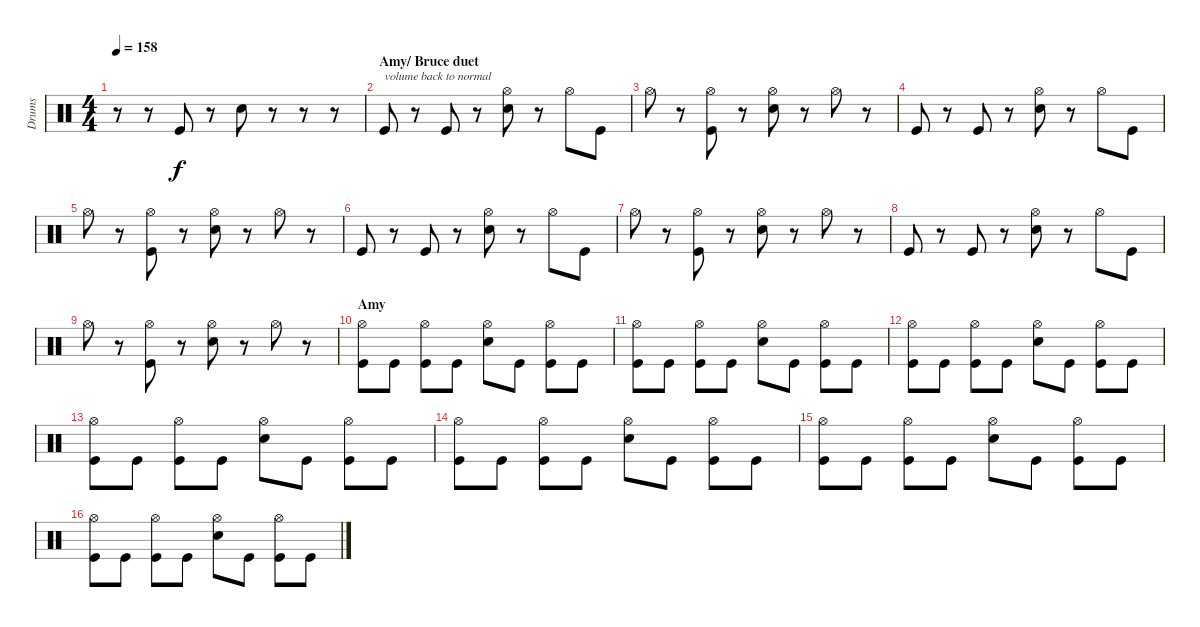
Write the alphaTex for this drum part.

\track ("Drums" "Drums") {instrument percussion}
\staff {score}
\articulation defaults
\ts (4 4)
\tempo 158
\clef neutral
\ks c
r.8{dy f} r.8 "Kick (hit)".8 r.8 "Snare (hit) 2".8 r.8 r.8 r.8 |
\section ("" "Amy/ Bruce duet")
"Kick (hit)".8{txt "volume back to normal" volume 13} r.8 "Kick (hit)".8 r.8 ("Hi-Hat (open)" "Snare (hit) 2").8 r.8 "Hi-Hat (open)".8 "Kick (hit)".8 |
"Hi-Hat (open)".8 r.8 ("Hi-Hat (open)" "Kick (hit)").8 r.8 ("Hi-Hat (open)" "Snare (hit) 2").8 r.8 "Hi-Hat (open)".8 r.8 |
"Kick (hit)".8 r.8 "Kick (hit)".8 r.8 ("Hi-Hat (open)" "Snare (hit) 2").8 r.8 "Hi-Hat (open)".8 "Kick (hit)".8 |
"Hi-Hat (open)".8 r.8 ("Hi-Hat (open)" "Kick (hit)").8 r.8 ("Hi-Hat (open)" "Snare (hit) 2").8 r.8 "Hi-Hat (open)".8 r.8 |
"Kick (hit)".8 r.8 "Kick (hit)".8 r.8 ("Hi-Hat (open)" "Snare (hit) 2").8 r.8 "Hi-Hat (open)".8 "Kick (hit)".8 |
"Hi-Hat (open)".8 r.8 ("Hi-Hat (open)" "Kick (hit)").8 r.8 ("Hi-Hat (open)" "Snare (hit) 2").8 r.8 "Hi-Hat (open)".8 r.8 |
"Kick (hit)".8 r.8 "Kick (hit)".8 r.8 ("Hi-Hat (open)" "Snare (hit) 2").8 r.8 "Hi-Hat (open)".8 "Kick (hit)".8 |
"Hi-Hat (open)".8 r.8 ("Hi-Hat (open)" "Kick (hit)").8 r.8 ("Hi-Hat (open)" "Snare (hit) 2").8 r.8 "Hi-Hat (open)".8 r.8 |
\section ("" "Amy")
("Hi-Hat (open)" "Kick (hit)").8 "Kick (hit)".8 ("Hi-Hat (open)" "Kick (hit)").8 "Kick (hit)".8 ("Hi-Hat (open)" "Snare (hit) 2").8 "Kick (hit)".8 ("Hi-Hat (open)" "Kick (hit)").8 "Kick (hit)".8 |
("Hi-Hat (open)" "Kick (hit)").8 "Kick (hit)".8 ("Hi-Hat (open)" "Kick (hit)").8 "Kick (hit)".8 ("Hi-Hat (open)" "Snare (hit) 2").8 "Kick (hit)".8 ("Hi-Hat (open)" "Kick (hit)").8 "Kick (hit)".8 |
("Hi-Hat (open)" "Kick (hit)").8 "Kick (hit)".8 ("Hi-Hat (open)" "Kick (hit)").8 "Kick (hit)".8 ("Hi-Hat (open)" "Snare (hit) 2").8 "Kick (hit)".8 ("Hi-Hat (open)" "Kick (hit)").8 "Kick (hit)".8 |
("Hi-Hat (open)" "Kick (hit)").8 "Kick (hit)".8 ("Hi-Hat (open)" "Kick (hit)").8 "Kick (hit)".8 ("Hi-Hat (open)" "Snare (hit) 2").8 "Kick (hit)".8 ("Hi-Hat (open)" "Kick (hit)").8 "Kick (hit)".8 |
("Hi-Hat (open)" "Kick (hit)").8 "Kick (hit)".8 ("Hi-Hat (open)" "Kick (hit)").8 "Kick (hit)".8 ("Hi-Hat (open)" "Snare (hit) 2").8 "Kick (hit)".8 ("Hi-Hat (open)" "Kick (hit)").8 "Kick (hit)".8 |
("Hi-Hat (open)" "Kick (hit)").8 "Kick (hit)".8 ("Hi-Hat (open)" "Kick (hit)").8 "Kick (hit)".8 ("Hi-Hat (open)" "Snare (hit) 2").8 "Kick (hit)".8 ("Hi-Hat (open)" "Kick (hit)").8 "Kick (hit)".8 |
("Hi-Hat (open)" "Kick (hit)").8 "Kick (hit)".8 ("Hi-Hat (open)" "Kick (hit)").8 "Kick (hit)".8 ("Hi-Hat (open)" "Snare (hit) 2").8 "Kick (hit)".8 ("Hi-Hat (open)" "Kick (hit)").8 "Kick (hit)".8
